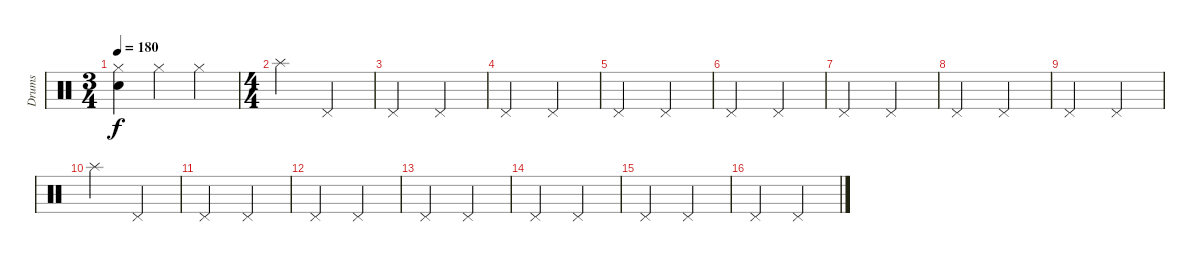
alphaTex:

\track ("Drums" "Drums") {instrument percussion}
\staff {score}
\articulation defaults
\ts (3 4)
\tempo 180
\clef neutral
\ks c
("Hi-Hat (closed)" "Electric Snare (hit)").4{dy f} "Hi-Hat (closed)".4 "Hi-Hat (closed)".4 |
\ts (4 4)
"Splash (hit)".2 "Pedal Hi-Hat (hit)".2 |
"Pedal Hi-Hat (hit)".2 "Pedal Hi-Hat (hit)".2 |
"Pedal Hi-Hat (hit)".2 "Pedal Hi-Hat (hit)".2 |
"Pedal Hi-Hat (hit)".2 "Pedal Hi-Hat (hit)".2 |
"Pedal Hi-Hat (hit)".2 "Pedal Hi-Hat (hit)".2 |
"Pedal Hi-Hat (hit)".2 "Pedal Hi-Hat (hit)".2 |
"Pedal Hi-Hat (hit)".2 "Pedal Hi-Hat (hit)".2 |
"Pedal Hi-Hat (hit)".2 "Pedal Hi-Hat (hit)".2 |
"Splash (hit)".2 "Pedal Hi-Hat (hit)".2 |
"Pedal Hi-Hat (hit)".2 "Pedal Hi-Hat (hit)".2 |
"Pedal Hi-Hat (hit)".2 "Pedal Hi-Hat (hit)".2 |
"Pedal Hi-Hat (hit)".2 "Pedal Hi-Hat (hit)".2 |
"Pedal Hi-Hat (hit)".2 "Pedal Hi-Hat (hit)".2 |
"Pedal Hi-Hat (hit)".2 "Pedal Hi-Hat (hit)".2 |
"Pedal Hi-Hat (hit)".2 "Pedal Hi-Hat (hit)".2
